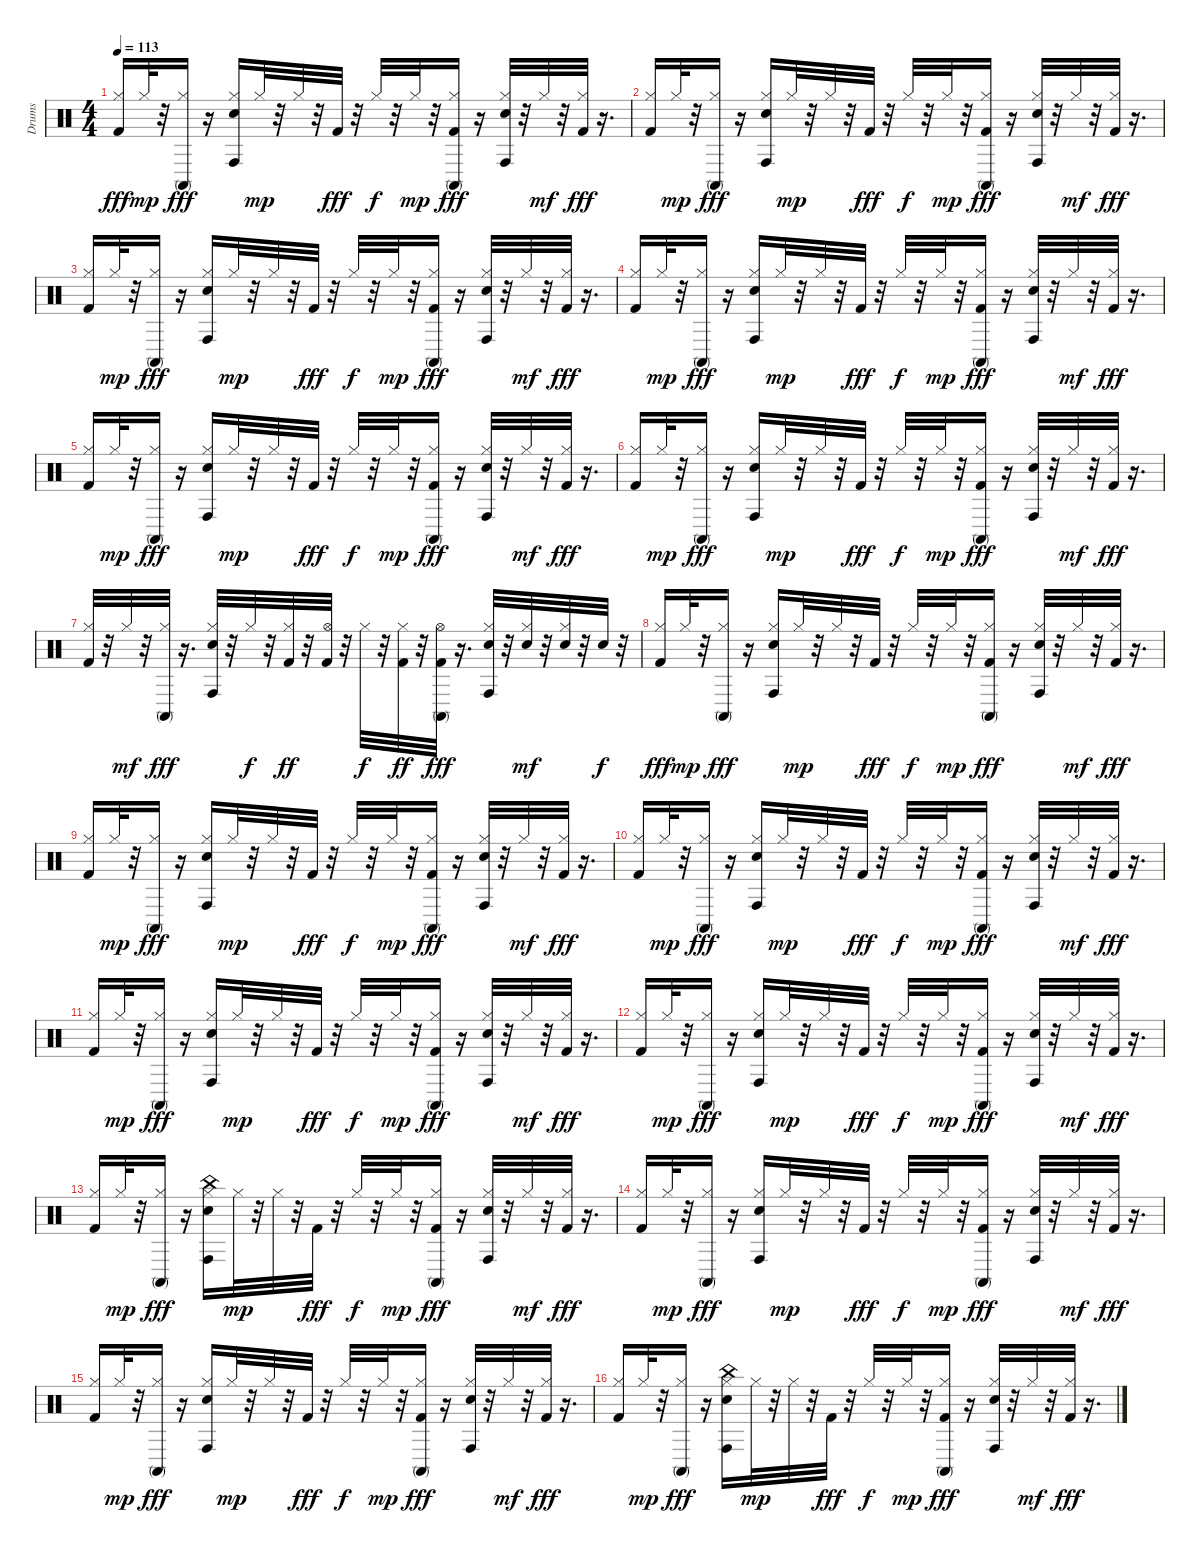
\track ("Drums   " "Drums   ") {instrument percussion}
\staff {score}
\articulation defaults
\ts (4 4)
\tempo 113
\clef neutral
\ks c
("Hi-Hat (closed)" "Kick (hit) 2").16{dy fff} "Hi-Hat (closed)".32{dy mp} r.32 ("Hi-Hat (closed)" "Conga high (mute)").16{dy fff} r.16 ("Hi-Hat (closed)" "Electric Snare (hit)" "Conga high (hit)").16 "Hi-Hat (closed)".32{dy mp} r.32 "Hi-Hat (closed)".32 r.32 "Kick (hit) 2".32{dy fff} r.32 "Hi-Hat (closed)".32{dy f} r.32 "Hi-Hat (closed)".32{dy mp} r.32 ("Hi-Hat (closed)" "Kick (hit) 2" "Conga high (mute)").16{dy fff} r.16 ("Hi-Hat (closed)" "Electric Snare (hit)" "Conga high (hit)").32 r.32 "Hi-Hat (closed)".32{dy mf} r.32 ("Hi-Hat (closed)" "Kick (hit) 2").32{dy fff} r.16{d} |
("Hi-Hat (closed)" "Kick (hit) 2").16 "Hi-Hat (closed)".32{dy mp} r.32 ("Hi-Hat (closed)" "Conga high (mute)").16{dy fff} r.16 ("Hi-Hat (closed)" "Electric Snare (hit)" "Conga high (hit)").16 "Hi-Hat (closed)".32{dy mp} r.32 "Hi-Hat (closed)".32 r.32 "Kick (hit) 2".32{dy fff} r.32 "Hi-Hat (closed)".32{dy f} r.32 "Hi-Hat (closed)".32{dy mp} r.32 ("Hi-Hat (closed)" "Kick (hit) 2" "Conga high (mute)").16{dy fff} r.16 ("Hi-Hat (closed)" "Electric Snare (hit)" "Conga high (hit)").32 r.32 "Hi-Hat (closed)".32{dy mf} r.32 ("Hi-Hat (closed)" "Kick (hit) 2").32{dy fff} r.16{d} |
("Hi-Hat (closed)" "Kick (hit) 2").16 "Hi-Hat (closed)".32{dy mp} r.32 ("Hi-Hat (closed)" "Conga high (mute)").16{dy fff} r.16 ("Hi-Hat (closed)" "Electric Snare (hit)" "Conga high (hit)").16 "Hi-Hat (closed)".32{dy mp} r.32 "Hi-Hat (closed)".32 r.32 "Kick (hit) 2".32{dy fff} r.32 "Hi-Hat (closed)".32{dy f} r.32 "Hi-Hat (closed)".32{dy mp} r.32 ("Hi-Hat (closed)" "Kick (hit) 2" "Conga high (mute)").16{dy fff} r.16 ("Hi-Hat (closed)" "Electric Snare (hit)" "Conga high (hit)").32 r.32 "Hi-Hat (closed)".32{dy mf} r.32 ("Hi-Hat (closed)" "Kick (hit) 2").32{dy fff} r.16{d} |
("Hi-Hat (closed)" "Kick (hit) 2").16 "Hi-Hat (closed)".32{dy mp} r.32 ("Hi-Hat (closed)" "Conga high (mute)").16{dy fff} r.16 ("Hi-Hat (closed)" "Electric Snare (hit)" "Conga high (hit)").16 "Hi-Hat (closed)".32{dy mp} r.32 "Hi-Hat (closed)".32 r.32 "Kick (hit) 2".32{dy fff} r.32 "Hi-Hat (closed)".32{dy f} r.32 "Hi-Hat (closed)".32{dy mp} r.32 ("Hi-Hat (closed)" "Kick (hit) 2" "Conga high (mute)").16{dy fff} r.16 ("Hi-Hat (closed)" "Electric Snare (hit)" "Conga high (hit)").32 r.32 "Hi-Hat (closed)".32{dy mf} r.32 ("Hi-Hat (closed)" "Kick (hit) 2").32{dy fff} r.16{d} |
("Hi-Hat (closed)" "Kick (hit) 2").16 "Hi-Hat (closed)".32{dy mp} r.32 ("Hi-Hat (closed)" "Conga high (mute)").16{dy fff} r.16 ("Hi-Hat (closed)" "Electric Snare (hit)" "Conga high (hit)").16 "Hi-Hat (closed)".32{dy mp} r.32 "Hi-Hat (closed)".32 r.32 "Kick (hit) 2".32{dy fff} r.32 "Hi-Hat (closed)".32{dy f} r.32 "Hi-Hat (closed)".32{dy mp} r.32 ("Hi-Hat (closed)" "Kick (hit) 2" "Conga high (mute)").16{dy fff} r.16 ("Hi-Hat (closed)" "Electric Snare (hit)" "Conga high (hit)").32 r.32 "Hi-Hat (closed)".32{dy mf} r.32 ("Hi-Hat (closed)" "Kick (hit) 2").32{dy fff} r.16{d} |
("Hi-Hat (closed)" "Kick (hit) 2").16 "Hi-Hat (closed)".32{dy mp} r.32 ("Hi-Hat (closed)" "Conga high (mute)").16{dy fff} r.16 ("Hi-Hat (closed)" "Electric Snare (hit)" "Conga high (hit)").16 "Hi-Hat (closed)".32{dy mp} r.32 "Hi-Hat (closed)".32 r.32 "Kick (hit) 2".32{dy fff} r.32 "Hi-Hat (closed)".32{dy f} r.32 "Hi-Hat (closed)".32{dy mp} r.32 ("Hi-Hat (closed)" "Kick (hit) 2" "Conga high (mute)").16{dy fff} r.16 ("Hi-Hat (closed)" "Electric Snare (hit)" "Conga high (hit)").32 r.32 "Hi-Hat (closed)".32{dy mf} r.32 ("Hi-Hat (closed)" "Kick (hit) 2").32{dy fff} r.16{d} |
("Hi-Hat (closed)" "Kick (hit) 2").32 r.32 "Hi-Hat (closed)".32{dy mf} r.32 ("Hi-Hat (closed)" "Conga high (mute)").32{dy fff} r.16{d} ("Hi-Hat (closed)" "Electric Snare (hit)" "Conga high (hit)").32 r.32 "Hi-Hat (closed)".32{dy f} r.32 ("Hi-Hat (closed)" "Kick (hit) 2").32{dy ff} r.32 ("Kick (hit) 2" "Hi-Hat (open)").32 r.32 "Hi-Hat (closed)".32{dy f} r.32 ("Hi-Hat (closed)" "Kick (hit) 2").32{dy ff} r.32 ("Kick (hit) 2" "Hi-Hat (open)" "Conga high (mute)").32{dy fff} r.16{d} ("Hi-Hat (closed)" "Electric Snare (hit)" "Conga high (hit)").32 r.32 ("Hi-Hat (closed)" "Electric Snare (hit)").32{dy mf} r.32 ("Hi-Hat (closed)" "Electric Snare (hit)").32 r.32 "Electric Snare (hit)".32{dy f} r.32 |
("Hi-Hat (closed)" "Kick (hit) 2").16{dy fff} "Hi-Hat (closed)".32{dy mp} r.32 ("Hi-Hat (closed)" "Conga high (mute)").16{dy fff} r.16 ("Hi-Hat (closed)" "Electric Snare (hit)" "Conga high (hit)").16 "Hi-Hat (closed)".32{dy mp} r.32 "Hi-Hat (closed)".32 r.32 "Kick (hit) 2".32{dy fff} r.32 "Hi-Hat (closed)".32{dy f} r.32 "Hi-Hat (closed)".32{dy mp} r.32 ("Hi-Hat (closed)" "Kick (hit) 2" "Conga high (mute)").16{dy fff} r.16 ("Hi-Hat (closed)" "Electric Snare (hit)" "Conga high (hit)").32 r.32 "Hi-Hat (closed)".32{dy mf} r.32 ("Hi-Hat (closed)" "Kick (hit) 2").32{dy fff} r.16{d} |
("Hi-Hat (closed)" "Kick (hit) 2").16 "Hi-Hat (closed)".32{dy mp} r.32 ("Hi-Hat (closed)" "Conga high (mute)").16{dy fff} r.16 ("Hi-Hat (closed)" "Electric Snare (hit)" "Conga high (hit)").16 "Hi-Hat (closed)".32{dy mp} r.32 "Hi-Hat (closed)".32 r.32 "Kick (hit) 2".32{dy fff} r.32 "Hi-Hat (closed)".32{dy f} r.32 "Hi-Hat (closed)".32{dy mp} r.32 ("Hi-Hat (closed)" "Kick (hit) 2" "Conga high (mute)").16{dy fff} r.16 ("Hi-Hat (closed)" "Electric Snare (hit)" "Conga high (hit)").32 r.32 "Hi-Hat (closed)".32{dy mf} r.32 ("Hi-Hat (closed)" "Kick (hit) 2").32{dy fff} r.16{d} |
("Hi-Hat (closed)" "Kick (hit) 2").16 "Hi-Hat (closed)".32{dy mp} r.32 ("Hi-Hat (closed)" "Conga high (mute)").16{dy fff} r.16 ("Hi-Hat (closed)" "Electric Snare (hit)" "Conga high (hit)").16 "Hi-Hat (closed)".32{dy mp} r.32 "Hi-Hat (closed)".32 r.32 "Kick (hit) 2".32{dy fff} r.32 "Hi-Hat (closed)".32{dy f} r.32 "Hi-Hat (closed)".32{dy mp} r.32 ("Hi-Hat (closed)" "Kick (hit) 2" "Conga high (mute)").16{dy fff} r.16 ("Hi-Hat (closed)" "Electric Snare (hit)" "Conga high (hit)").32 r.32 "Hi-Hat (closed)".32{dy mf} r.32 ("Hi-Hat (closed)" "Kick (hit) 2").32{dy fff} r.16{d} |
("Hi-Hat (closed)" "Kick (hit) 2").16 "Hi-Hat (closed)".32{dy mp} r.32 ("Hi-Hat (closed)" "Conga high (mute)").16{dy fff} r.16 ("Hi-Hat (closed)" "Electric Snare (hit)" "Conga high (hit)").16 "Hi-Hat (closed)".32{dy mp} r.32 "Hi-Hat (closed)".32 r.32 "Kick (hit) 2".32{dy fff} r.32 "Hi-Hat (closed)".32{dy f} r.32 "Hi-Hat (closed)".32{dy mp} r.32 ("Hi-Hat (closed)" "Kick (hit) 2" "Conga high (mute)").16{dy fff} r.16 ("Hi-Hat (closed)" "Electric Snare (hit)" "Conga high (hit)").32 r.32 "Hi-Hat (closed)".32{dy mf} r.32 ("Hi-Hat (closed)" "Kick (hit) 2").32{dy fff} r.16{d} |
("Hi-Hat (closed)" "Kick (hit) 2").16 "Hi-Hat (closed)".32{dy mp} r.32 ("Hi-Hat (closed)" "Conga high (mute)").16{dy fff} r.16 ("Hi-Hat (closed)" "Electric Snare (hit)" "Conga high (hit)").16 "Hi-Hat (closed)".32{dy mp} r.32 "Hi-Hat (closed)".32 r.32 "Kick (hit) 2".32{dy fff} r.32 "Hi-Hat (closed)".32{dy f} r.32 "Hi-Hat (closed)".32{dy mp} r.32 ("Hi-Hat (closed)" "Kick (hit) 2" "Conga high (mute)").16{dy fff} r.16 ("Hi-Hat (closed)" "Electric Snare (hit)" "Conga high (hit)").32 r.32 "Hi-Hat (closed)".32{dy mf} r.32 ("Hi-Hat (closed)" "Kick (hit) 2").32{dy fff} r.16{d} |
("Hi-Hat (closed)" "Kick (hit) 2").16 "Hi-Hat (closed)".32{dy mp} r.32 ("Hi-Hat (closed)" "Conga high (mute)").16{dy fff} r.16 ("Hi-Hat (closed)" "Electric Snare (hit)" "China (hit)" "Conga high (hit)").16 "Hi-Hat (closed)".32{dy mp} r.32 "Hi-Hat (closed)".32 r.32 "Kick (hit) 2".32{dy fff} r.32 "Hi-Hat (closed)".32{dy f} r.32 "Hi-Hat (closed)".32{dy mp} r.32 ("Hi-Hat (closed)" "Kick (hit) 2" "Conga high (mute)").16{dy fff} r.16 ("Hi-Hat (closed)" "Electric Snare (hit)" "Conga high (hit)").32 r.32 "Hi-Hat (closed)".32{dy mf} r.32 ("Hi-Hat (closed)" "Kick (hit) 2").32{dy fff} r.16{d} |
("Hi-Hat (closed)" "Kick (hit) 2").16 "Hi-Hat (closed)".32{dy mp} r.32 ("Hi-Hat (closed)" "Conga high (mute)").16{dy fff} r.16 ("Hi-Hat (closed)" "Electric Snare (hit)" "Conga high (hit)").16 "Hi-Hat (closed)".32{dy mp} r.32 "Hi-Hat (closed)".32 r.32 "Kick (hit) 2".32{dy fff} r.32 "Hi-Hat (closed)".32{dy f} r.32 "Hi-Hat (closed)".32{dy mp} r.32 ("Hi-Hat (closed)" "Kick (hit) 2" "Conga high (mute)").16{dy fff} r.16 ("Hi-Hat (closed)" "Electric Snare (hit)" "Conga high (hit)").32 r.32 "Hi-Hat (closed)".32{dy mf} r.32 ("Hi-Hat (closed)" "Kick (hit) 2").32{dy fff} r.16{d} |
("Hi-Hat (closed)" "Kick (hit) 2").16 "Hi-Hat (closed)".32{dy mp} r.32 ("Hi-Hat (closed)" "Conga high (mute)").16{dy fff} r.16 ("Hi-Hat (closed)" "Electric Snare (hit)" "Conga high (hit)").16 "Hi-Hat (closed)".32{dy mp} r.32 "Hi-Hat (closed)".32 r.32 "Kick (hit) 2".32{dy fff} r.32 "Hi-Hat (closed)".32{dy f} r.32 "Hi-Hat (closed)".32{dy mp} r.32 ("Hi-Hat (closed)" "Kick (hit) 2" "Conga high (mute)").16{dy fff} r.16 ("Hi-Hat (closed)" "Electric Snare (hit)" "Conga high (hit)").32 r.32 "Hi-Hat (closed)".32{dy mf} r.32 ("Hi-Hat (closed)" "Kick (hit) 2").32{dy fff} r.16{d} |
("Hi-Hat (closed)" "Kick (hit) 2").16 "Hi-Hat (closed)".32{dy mp} r.32 ("Hi-Hat (closed)" "Conga high (mute)").16{dy fff} r.16 ("Hi-Hat (closed)" "Electric Snare (hit)" "China (hit)" "Conga high (hit)").16 "Hi-Hat (closed)".32{dy mp} r.32 "Hi-Hat (closed)".32 r.32 "Kick (hit) 2".32{dy fff} r.32 "Hi-Hat (closed)".32{dy f} r.32 "Hi-Hat (closed)".32{dy mp} r.32 ("Hi-Hat (closed)" "Kick (hit) 2" "Conga high (mute)").16{dy fff} r.16 ("Hi-Hat (closed)" "Electric Snare (hit)" "Conga high (hit)").32 r.32 "Hi-Hat (closed)".32{dy mf} r.32 ("Hi-Hat (closed)" "Kick (hit) 2").32{dy fff} r.16{d}
